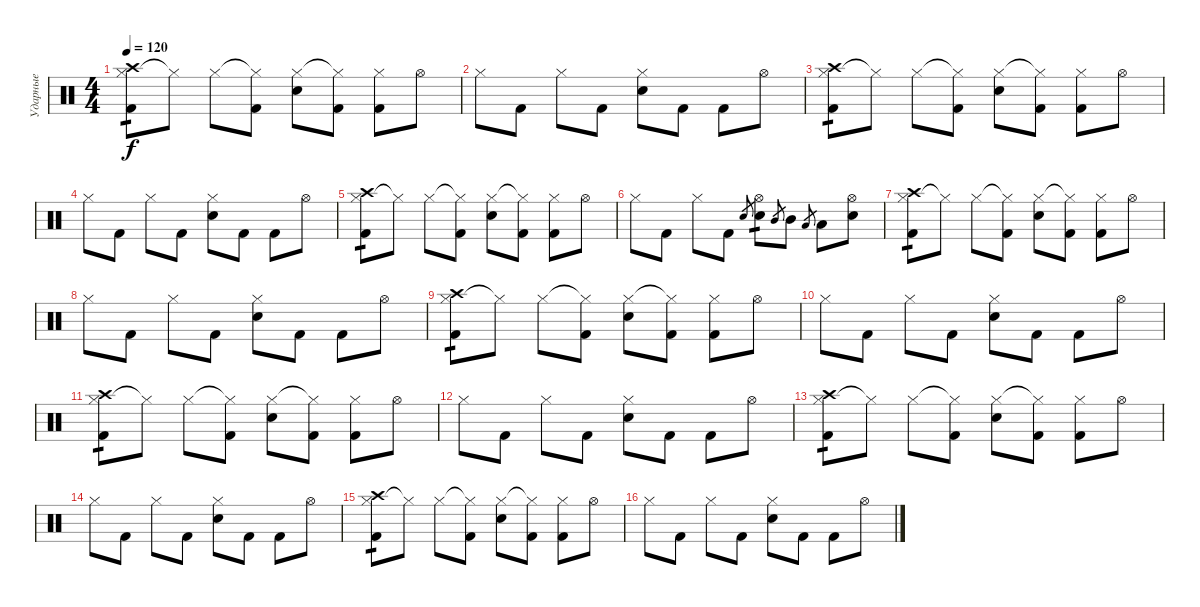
\track ("Ударные" "Ударные") {instrument percussion}
\staff {score}
\articulation defaults
\ts (4 4)
\tempo 120
\clef neutral
\ks c
("Hi-Hat (closed)" "Kick (hit) 2" "Crash high (hit)").8{tp 1 dy f} "Hi-Hat (closed)"{t}.8 "Hi-Hat (closed)".8 ("Hi-Hat (closed)"{t} "Kick (hit) 2").8 ("Hi-Hat (closed)" "Electric Snare (hit)").8 ("Hi-Hat (closed)"{t} "Kick (hit) 2").8 ("Hi-Hat (closed)" "Kick (hit) 2").8 "Hi-Hat (open)".8 |
"Hi-Hat (closed)".8 "Kick (hit) 2".8 "Hi-Hat (closed)".8 "Kick (hit) 2".8 ("Electric Snare (hit)" "Hi-Hat (closed)").8 "Kick (hit) 2".8 "Kick (hit) 2".8 "Hi-Hat (open)".8 |
("Hi-Hat (closed)" "Kick (hit) 2" "Crash high (hit)").8{tp 1} "Hi-Hat (closed)"{t}.8 "Hi-Hat (closed)".8 ("Hi-Hat (closed)"{t} "Kick (hit) 2").8 ("Hi-Hat (closed)" "Electric Snare (hit)").8 ("Hi-Hat (closed)"{t} "Kick (hit) 2").8 ("Hi-Hat (closed)" "Kick (hit) 2").8 "Hi-Hat (open)".8 |
"Hi-Hat (closed)".8 "Kick (hit) 2".8 "Hi-Hat (closed)".8 "Kick (hit) 2".8 ("Electric Snare (hit)" "Hi-Hat (closed)").8 "Kick (hit) 2".8 "Kick (hit) 2".8 "Hi-Hat (open)".8 |
("Hi-Hat (closed)" "Kick (hit) 2" "Crash high (hit)").8{tp 1} "Hi-Hat (closed)"{t}.8 "Hi-Hat (closed)".8 ("Hi-Hat (closed)"{t} "Kick (hit) 2").8 ("Hi-Hat (closed)" "Electric Snare (hit)").8 ("Hi-Hat (closed)"{t} "Kick (hit) 2").8 ("Hi-Hat (closed)" "Kick (hit) 2").8 "Hi-Hat (open)".8 |
"Hi-Hat (closed)".8 "Kick (hit) 2".8 "Hi-Hat (closed)".8 "Kick (hit) 2".8 "Electric Snare (hit)".8{gr} ("Electric Snare (hit)" "Hi-Hat (open)").8{tp 1} "Mid Tom (hit)".8{gr} "Mid Tom (hit)".8 "Low Tom (hit)".8{gr} "Low Tom (hit)".8 ("Hi-Hat (open)" "Electric Snare (hit)").8 |
("Hi-Hat (closed)" "Kick (hit) 2" "Crash high (hit)").8{tp 1} "Hi-Hat (closed)"{t}.8 "Hi-Hat (closed)".8 ("Hi-Hat (closed)"{t} "Kick (hit) 2").8 ("Hi-Hat (closed)" "Electric Snare (hit)").8 ("Hi-Hat (closed)"{t} "Kick (hit) 2").8 ("Hi-Hat (closed)" "Kick (hit) 2").8 "Hi-Hat (open)".8 |
"Hi-Hat (closed)".8 "Kick (hit) 2".8 "Hi-Hat (closed)".8 "Kick (hit) 2".8 ("Electric Snare (hit)" "Hi-Hat (closed)").8 "Kick (hit) 2".8 "Kick (hit) 2".8 "Hi-Hat (open)".8 |
("Hi-Hat (closed)" "Kick (hit) 2" "Crash high (hit)").8{tp 1} "Hi-Hat (closed)"{t}.8 "Hi-Hat (closed)".8 ("Hi-Hat (closed)"{t} "Kick (hit) 2").8 ("Hi-Hat (closed)" "Electric Snare (hit)").8 ("Hi-Hat (closed)"{t} "Kick (hit) 2").8 ("Hi-Hat (closed)" "Kick (hit) 2").8 "Hi-Hat (open)".8 |
"Hi-Hat (closed)".8 "Kick (hit) 2".8 "Hi-Hat (closed)".8 "Kick (hit) 2".8 ("Electric Snare (hit)" "Hi-Hat (closed)").8 "Kick (hit) 2".8 "Kick (hit) 2".8 "Hi-Hat (open)".8 |
("Hi-Hat (closed)" "Kick (hit) 2" "Crash high (hit)").8{tp 1} "Hi-Hat (closed)"{t}.8 "Hi-Hat (closed)".8 ("Hi-Hat (closed)"{t} "Kick (hit) 2").8 ("Hi-Hat (closed)" "Electric Snare (hit)").8 ("Hi-Hat (closed)"{t} "Kick (hit) 2").8 ("Hi-Hat (closed)" "Kick (hit) 2").8 "Hi-Hat (open)".8 |
"Hi-Hat (closed)".8 "Kick (hit) 2".8 "Hi-Hat (closed)".8 "Kick (hit) 2".8 ("Electric Snare (hit)" "Hi-Hat (closed)").8 "Kick (hit) 2".8 "Kick (hit) 2".8 "Hi-Hat (open)".8 |
("Hi-Hat (closed)" "Kick (hit) 2" "Crash high (hit)").8{tp 1} "Hi-Hat (closed)"{t}.8 "Hi-Hat (closed)".8 ("Hi-Hat (closed)"{t} "Kick (hit) 2").8 ("Hi-Hat (closed)" "Electric Snare (hit)").8 ("Hi-Hat (closed)"{t} "Kick (hit) 2").8 ("Hi-Hat (closed)" "Kick (hit) 2").8 "Hi-Hat (open)".8 |
"Hi-Hat (closed)".8 "Kick (hit) 2".8 "Hi-Hat (closed)".8 "Kick (hit) 2".8 ("Electric Snare (hit)" "Hi-Hat (closed)").8 "Kick (hit) 2".8 "Kick (hit) 2".8 "Hi-Hat (open)".8 |
("Hi-Hat (closed)" "Kick (hit) 2" "Crash high (hit)").8{tp 1} "Hi-Hat (closed)"{t}.8 "Hi-Hat (closed)".8 ("Hi-Hat (closed)"{t} "Kick (hit) 2").8 ("Hi-Hat (closed)" "Electric Snare (hit)").8 ("Hi-Hat (closed)"{t} "Kick (hit) 2").8 ("Hi-Hat (closed)" "Kick (hit) 2").8 "Hi-Hat (open)".8 |
"Hi-Hat (closed)".8 "Kick (hit) 2".8 "Hi-Hat (closed)".8 "Kick (hit) 2".8 ("Electric Snare (hit)" "Hi-Hat (closed)").8 "Kick (hit) 2".8 "Kick (hit) 2".8 "Hi-Hat (open)".8
